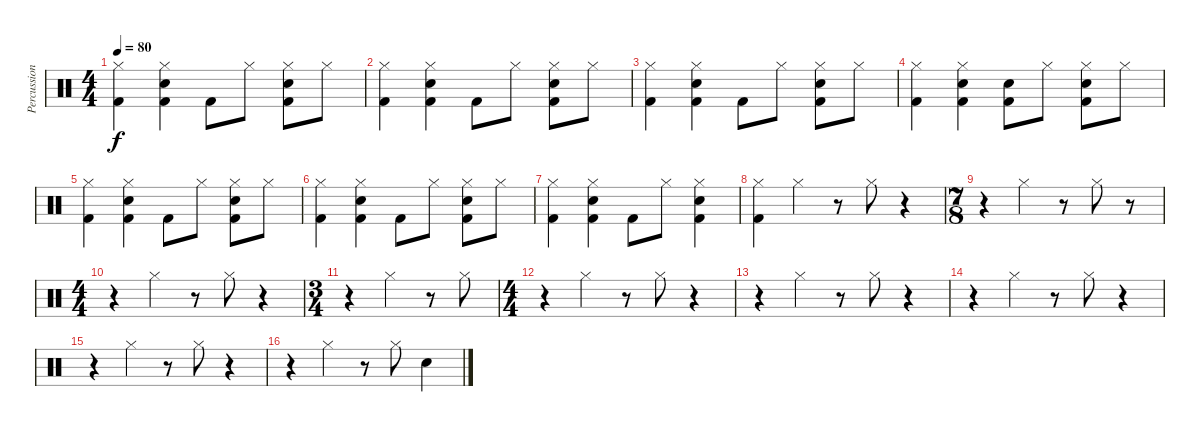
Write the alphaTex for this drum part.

\track ("Percussion" "Percussion") {instrument percussion}
\staff {score}
\articulation defaults
\ts (4 4)
\tempo 80
\clef neutral
\ks c
("Hi-Hat (closed)" "Kick (hit) 2").4{dy f} ("Hi-Hat (closed)" "Snare (hit) 2" "Kick (hit) 2").4 "Kick (hit) 2".8 "Hi-Hat (closed)".8 ("Hi-Hat (closed)" "Snare (hit) 2" "Kick (hit) 2").8 "Hi-Hat (closed)".8 |
("Hi-Hat (closed)" "Kick (hit) 2").4 ("Hi-Hat (closed)" "Snare (hit) 2" "Kick (hit) 2").4 "Kick (hit) 2".8 "Hi-Hat (closed)".8 ("Hi-Hat (closed)" "Snare (hit) 2" "Kick (hit) 2").8 "Hi-Hat (closed)".8 |
("Hi-Hat (closed)" "Kick (hit) 2").4 ("Hi-Hat (closed)" "Snare (hit) 2" "Kick (hit) 2").4 "Kick (hit) 2".8 "Hi-Hat (closed)".8 ("Hi-Hat (closed)" "Snare (hit) 2" "Kick (hit) 2").8 "Hi-Hat (closed)".8 |
("Hi-Hat (closed)" "Kick (hit) 2").4 ("Hi-Hat (closed)" "Snare (hit) 2" "Kick (hit) 2").4 ("Snare (hit) 2" "Kick (hit) 2").8 "Hi-Hat (closed)".8 ("Hi-Hat (closed)" "Snare (hit) 2" "Kick (hit) 2").8 "Hi-Hat (closed)".8 |
("Hi-Hat (closed)" "Kick (hit) 2").4 ("Hi-Hat (closed)" "Snare (hit) 2" "Kick (hit) 2").4 "Kick (hit) 2".8 "Hi-Hat (closed)".8 ("Hi-Hat (closed)" "Snare (hit) 2" "Kick (hit) 2").8 "Hi-Hat (closed)".8 |
("Hi-Hat (closed)" "Kick (hit) 2").4 ("Hi-Hat (closed)" "Snare (hit) 2" "Kick (hit) 2").4 "Kick (hit) 2".8 "Hi-Hat (closed)".8 ("Hi-Hat (closed)" "Snare (hit) 2" "Kick (hit) 2").8 "Hi-Hat (closed)".8 |
("Hi-Hat (closed)" "Kick (hit) 2").4 ("Hi-Hat (closed)" "Snare (hit) 2" "Kick (hit) 2").4 "Kick (hit) 2".8 "Hi-Hat (closed)".8 ("Hi-Hat (closed)" "Snare (hit) 2" "Kick (hit) 2").4 |
("Hi-Hat (closed)" "Kick (hit) 2").4 "Hi-Hat (closed)".4 r.8 "Hi-Hat (closed)".8 r.4 |
\ts (7 8)
r.4 "Hi-Hat (closed)".4 r.8 "Hi-Hat (closed)".8 r.8 |
\ts (4 4)
r.4 "Hi-Hat (closed)".4 r.8 "Hi-Hat (closed)".8 r.4 |
\ts (3 4)
r.4 "Hi-Hat (closed)".4 r.8 "Hi-Hat (closed)".8 |
\ts (4 4)
r.4 "Hi-Hat (closed)".4 r.8 "Hi-Hat (closed)".8 r.4 |
r.4 "Hi-Hat (closed)".4 r.8 "Hi-Hat (closed)".8 r.4 |
r.4 "Hi-Hat (closed)".4 r.8 "Hi-Hat (closed)".8 r.4 |
r.4 "Hi-Hat (closed)".4 r.8 "Hi-Hat (closed)".8 r.4 |
r.4 "Hi-Hat (closed)".4 r.8 "Hi-Hat (closed)".8 "Snare (hit) 2".4
